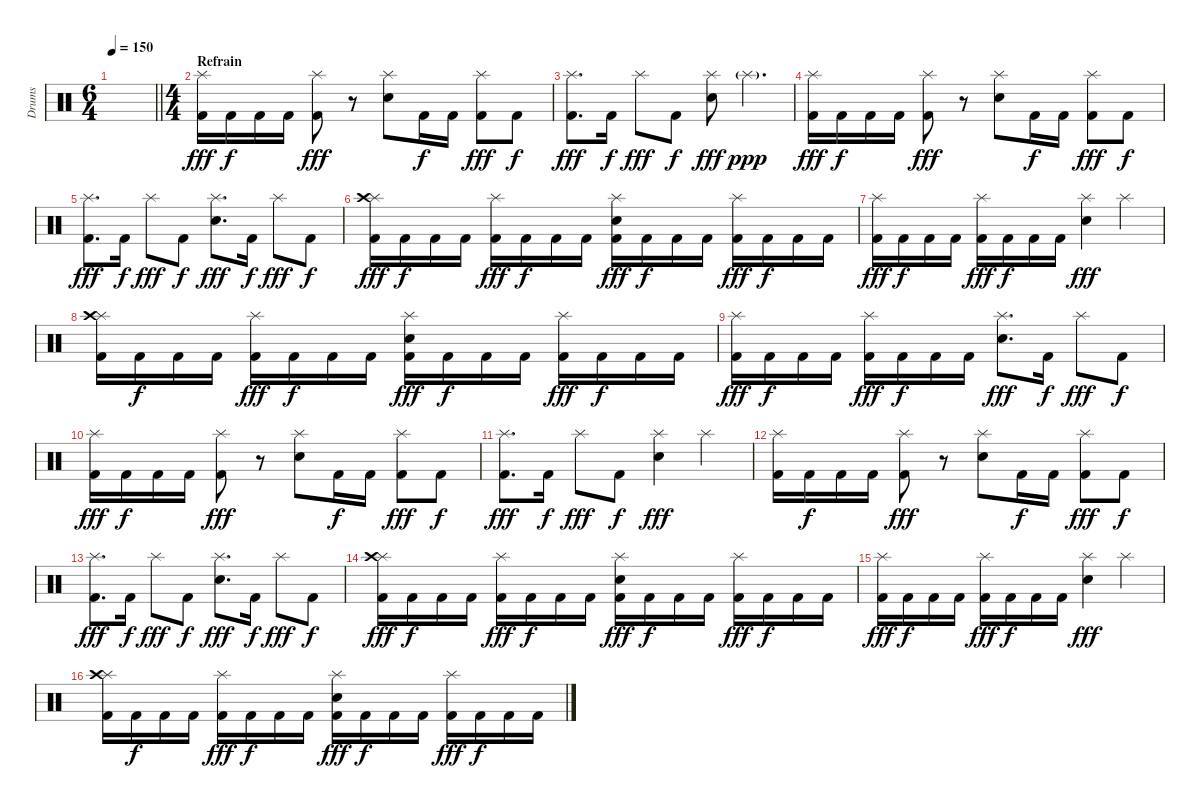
\track ("Drums" "Drums") {instrument percussion}
\staff {score}
\articulation defaults
\ts (6 4)
\tempo 150
\clef neutral
\barLineRight lightlight
\ks c
|
\ts (4 4)
\section ("" "Refrain")
("Splash (hit)" "Kick (hit) 2").16{dy fff} "Kick (hit) 2".16{dy f} "Kick (hit) 2".16 "Kick (hit) 2".16 ("Splash (hit)" "Kick (hit) 2").8{dy fff} r.8 ("Splash (hit)" "Electric Snare (hit)").8 "Kick (hit) 2".16{dy f} "Kick (hit) 2".16 ("Splash (hit)" "Kick (hit) 2").8{dy fff} "Kick (hit) 2".8{dy f} |
("Splash (hit)" "Kick (hit) 2").8{d dy fff} "Kick (hit) 2".16{dy f} "Splash (hit)".8{dy fff} "Kick (hit) 2".8{dy f} ("Splash (hit)" "Electric Snare (hit)").8{dy fff} "Splash (hit)"{g}.4{d dy ppp} |
("Splash (hit)" "Kick (hit) 2").16{dy fff} "Kick (hit) 2".16{dy f} "Kick (hit) 2".16 "Kick (hit) 2".16 ("Splash (hit)" "Kick (hit) 2").8{dy fff} r.8 ("Splash (hit)" "Electric Snare (hit)").8 "Kick (hit) 2".16{dy f} "Kick (hit) 2".16 ("Splash (hit)" "Kick (hit) 2").8{dy fff} "Kick (hit) 2".8{dy f} |
("Splash (hit)" "Kick (hit) 2").8{d dy fff} "Kick (hit) 2".16{dy f} "Splash (hit)".8{dy fff} "Kick (hit) 2".8{dy f} ("Splash (hit)" "Electric Snare (hit)").8{d dy fff} "Kick (hit) 2".16{dy f} "Splash (hit)".8{dy fff} "Kick (hit) 2".8{dy f} |
("Splash (hit)" "Crash high (hit)" "Kick (hit) 2").16{dy fff} "Kick (hit) 2".16{dy f} "Kick (hit) 2".16 "Kick (hit) 2".16 ("Splash (hit)" "Kick (hit) 2").16{dy fff} "Kick (hit) 2".16{dy f} "Kick (hit) 2".16 "Kick (hit) 2".16 ("Splash (hit)" "Electric Snare (hit)" "Kick (hit) 2").16{dy fff} "Kick (hit) 2".16{dy f} "Kick (hit) 2".16 "Kick (hit) 2".16 ("Splash (hit)" "Kick (hit) 2").16{dy fff} "Kick (hit) 2".16{dy f} "Kick (hit) 2".16 "Kick (hit) 2".16 |
("Splash (hit)" "Kick (hit) 2").16{dy fff} "Kick (hit) 2".16{dy f} "Kick (hit) 2".16 "Kick (hit) 2".16 ("Splash (hit)" "Kick (hit) 2").16{dy fff} "Kick (hit) 2".16{dy f} "Kick (hit) 2".16 "Kick (hit) 2".16 ("Splash (hit)" "Electric Snare (hit)").4{dy fff} "Splash (hit)".4 |
("Splash (hit)" "Crash high (hit)" "Kick (hit) 2").16 "Kick (hit) 2".16{dy f} "Kick (hit) 2".16 "Kick (hit) 2".16 ("Splash (hit)" "Kick (hit) 2").16{dy fff} "Kick (hit) 2".16{dy f} "Kick (hit) 2".16 "Kick (hit) 2".16 ("Splash (hit)" "Electric Snare (hit)" "Kick (hit) 2").16{dy fff} "Kick (hit) 2".16{dy f} "Kick (hit) 2".16 "Kick (hit) 2".16 ("Splash (hit)" "Kick (hit) 2").16{dy fff} "Kick (hit) 2".16{dy f} "Kick (hit) 2".16 "Kick (hit) 2".16 |
("Splash (hit)" "Kick (hit) 2").16{dy fff} "Kick (hit) 2".16{dy f} "Kick (hit) 2".16 "Kick (hit) 2".16 ("Splash (hit)" "Kick (hit) 2").16{dy fff} "Kick (hit) 2".16{dy f} "Kick (hit) 2".16 "Kick (hit) 2".16 ("Splash (hit)" "Electric Snare (hit)").8{d dy fff} "Kick (hit) 2".16{dy f} "Splash (hit)".8{dy fff} "Kick (hit) 2".8{dy f} |
("Splash (hit)" "Kick (hit) 2").16{dy fff} "Kick (hit) 2".16{dy f} "Kick (hit) 2".16 "Kick (hit) 2".16 ("Splash (hit)" "Kick (hit) 2").8{dy fff} r.8 ("Splash (hit)" "Electric Snare (hit)").8 "Kick (hit) 2".16{dy f} "Kick (hit) 2".16 ("Splash (hit)" "Kick (hit) 2").8{dy fff} "Kick (hit) 2".8{dy f} |
("Splash (hit)" "Kick (hit) 2").8{d dy fff} "Kick (hit) 2".16{dy f} "Splash (hit)".8{dy fff} "Kick (hit) 2".8{dy f} ("Splash (hit)" "Electric Snare (hit)").4{dy fff} "Splash (hit)".4 |
("Splash (hit)" "Kick (hit) 2").16 "Kick (hit) 2".16{dy f} "Kick (hit) 2".16 "Kick (hit) 2".16 ("Splash (hit)" "Kick (hit) 2").8{dy fff} r.8 ("Splash (hit)" "Electric Snare (hit)").8 "Kick (hit) 2".16{dy f} "Kick (hit) 2".16 ("Splash (hit)" "Kick (hit) 2").8{dy fff} "Kick (hit) 2".8{dy f} |
("Splash (hit)" "Kick (hit) 2").8{d dy fff} "Kick (hit) 2".16{dy f} "Splash (hit)".8{dy fff} "Kick (hit) 2".8{dy f} ("Splash (hit)" "Electric Snare (hit)").8{d dy fff} "Kick (hit) 2".16{dy f} "Splash (hit)".8{dy fff} "Kick (hit) 2".8{dy f} |
("Splash (hit)" "Crash high (hit)" "Kick (hit) 2").16{dy fff} "Kick (hit) 2".16{dy f} "Kick (hit) 2".16 "Kick (hit) 2".16 ("Splash (hit)" "Kick (hit) 2").16{dy fff} "Kick (hit) 2".16{dy f} "Kick (hit) 2".16 "Kick (hit) 2".16 ("Splash (hit)" "Electric Snare (hit)" "Kick (hit) 2").16{dy fff} "Kick (hit) 2".16{dy f} "Kick (hit) 2".16 "Kick (hit) 2".16 ("Splash (hit)" "Kick (hit) 2").16{dy fff} "Kick (hit) 2".16{dy f} "Kick (hit) 2".16 "Kick (hit) 2".16 |
("Splash (hit)" "Kick (hit) 2").16{dy fff} "Kick (hit) 2".16{dy f} "Kick (hit) 2".16 "Kick (hit) 2".16 ("Splash (hit)" "Kick (hit) 2").16{dy fff} "Kick (hit) 2".16{dy f} "Kick (hit) 2".16 "Kick (hit) 2".16 ("Splash (hit)" "Electric Snare (hit)").4{dy fff} "Splash (hit)".4 |
("Splash (hit)" "Crash high (hit)" "Kick (hit) 2").16 "Kick (hit) 2".16{dy f} "Kick (hit) 2".16 "Kick (hit) 2".16 ("Splash (hit)" "Kick (hit) 2").16{dy fff} "Kick (hit) 2".16{dy f} "Kick (hit) 2".16 "Kick (hit) 2".16 ("Splash (hit)" "Electric Snare (hit)" "Kick (hit) 2").16{dy fff} "Kick (hit) 2".16{dy f} "Kick (hit) 2".16 "Kick (hit) 2".16 ("Splash (hit)" "Kick (hit) 2").16{dy fff} "Kick (hit) 2".16{dy f} "Kick (hit) 2".16 "Kick (hit) 2".16
